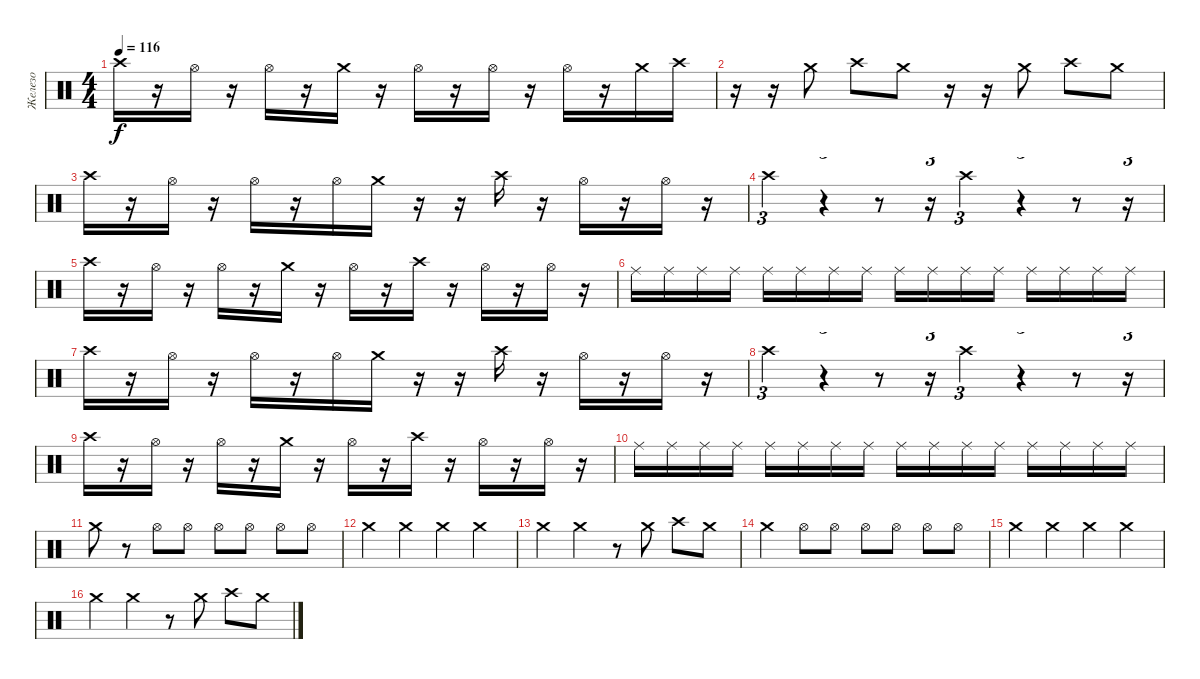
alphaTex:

\track ("Железо" "Железо") {instrument percussion}
\staff {score}
\articulation defaults
\ts (4 4)
\tempo 116
\clef neutral
\ks c "Crash high (hit)".16{dy f}
r.16 "Hi-Hat (open)".16 r.16 "Hi-Hat (open)".16 r.16 "Crash medium (hit)".16 r.16 "Hi-Hat (open)".16 r.16 "Hi-Hat (open)".16 r.16 "Hi-Hat (open)".16 r.16 "Crash medium (hit)".16 "Crash high (hit)".16 |
r.16 r.16 "Crash medium (hit)".8 "Crash high (hit)".8 "Crash medium (hit)".8 r.16 r.16 "Crash medium (hit)".8 "Crash high (hit)".8 "Crash medium (hit)".8 |
"Crash high (hit)".16 r.16 "Hi-Hat (open)".16 r.16 "Hi-Hat (open)".16 r.16 "Hi-Hat (open)".16 "Crash medium (hit)".16 r.16 r.16 "Crash high (hit)".16 r.16 "Hi-Hat (open)".16 r.16 "Hi-Hat (open)".16 r.16 |
"Crash high (hit)".4{tu (3 2)} r.4{tu (3 2)} r.8 r.16{tu (3 2)} "Crash high (hit)".4{tu (3 2)} r.4{tu (3 2)} r.8 r.16{tu (3 2)} |
"Crash high (hit)".16 r.16 "Hi-Hat (open)".16 r.16 "Hi-Hat (open)".16 r.16 "Crash medium (hit)".16 r.16 "Hi-Hat (open)".16 r.16 "Crash high (hit)".16 r.16 "Hi-Hat (open)".16 r.16 "Hi-Hat (open)".16 r.16 |
"Ride (middle)".16 "Ride (middle)".16 "Ride (middle)".16 "Ride (middle)".16 "Ride (middle)".16 "Ride (middle)".16 "Ride (middle)".16 "Ride (middle)".16 "Ride (middle)".16 "Ride (middle)".16 "Ride (middle)".16 "Ride (middle)".16 "Ride (middle)".16 "Ride (middle)".16 "Ride (middle)".16 "Ride (middle)".16 |
"Crash high (hit)".16 r.16 "Hi-Hat (open)".16 r.16 "Hi-Hat (open)".16 r.16 "Hi-Hat (open)".16 "Crash medium (hit)".16 r.16 r.16 "Crash high (hit)".16 r.16 "Hi-Hat (open)".16 r.16 "Hi-Hat (open)".16 r.16 |
"Crash high (hit)".4{tu (3 2)} r.4{tu (3 2)} r.8 r.16{tu (3 2)} "Crash high (hit)".4{tu (3 2)} r.4{tu (3 2)} r.8 r.16{tu (3 2)} |
"Crash high (hit)".16 r.16 "Hi-Hat (open)".16 r.16 "Hi-Hat (open)".16 r.16 "Crash medium (hit)".16 r.16 "Hi-Hat (open)".16 r.16 "Crash high (hit)".16 r.16 "Hi-Hat (open)".16 r.16 "Hi-Hat (open)".16 r.16 |
"Ride (middle)".16 "Ride (middle)".16 "Ride (middle)".16 "Ride (middle)".16 "Ride (middle)".16 "Ride (middle)".16 "Ride (middle)".16 "Ride (middle)".16 "Ride (middle)".16 "Ride (middle)".16 "Ride (middle)".16 "Ride (middle)".16 "Ride (middle)".16 "Ride (middle)".16 "Ride (middle)".16 "Ride (middle)".16 |
"Crash medium (hit)".8 r.8 "Hi-Hat (open)".8 "Hi-Hat (open)".8 "Hi-Hat (open)".8 "Hi-Hat (open)".8 "Hi-Hat (open)".8 "Hi-Hat (open)".8 |
"Crash medium (hit)".4 "Crash medium (hit)".4 "Crash medium (hit)".4 "Crash medium (hit)".4 |
"Crash medium (hit)".4 "Crash medium (hit)".4 r.8 "Crash medium (hit)".8 "Crash high (hit)".8 "Crash medium (hit)".8 |
"Crash medium (hit)".4 "Hi-Hat (open)".8 "Hi-Hat (open)".8 "Hi-Hat (open)".8 "Hi-Hat (open)".8 "Hi-Hat (open)".8 "Hi-Hat (open)".8 |
"Crash medium (hit)".4 "Crash medium (hit)".4 "Crash medium (hit)".4 "Crash medium (hit)".4 |
"Crash medium (hit)".4 "Crash medium (hit)".4 r.8 "Crash medium (hit)".8 "Crash high (hit)".8 "Crash medium (hit)".8
